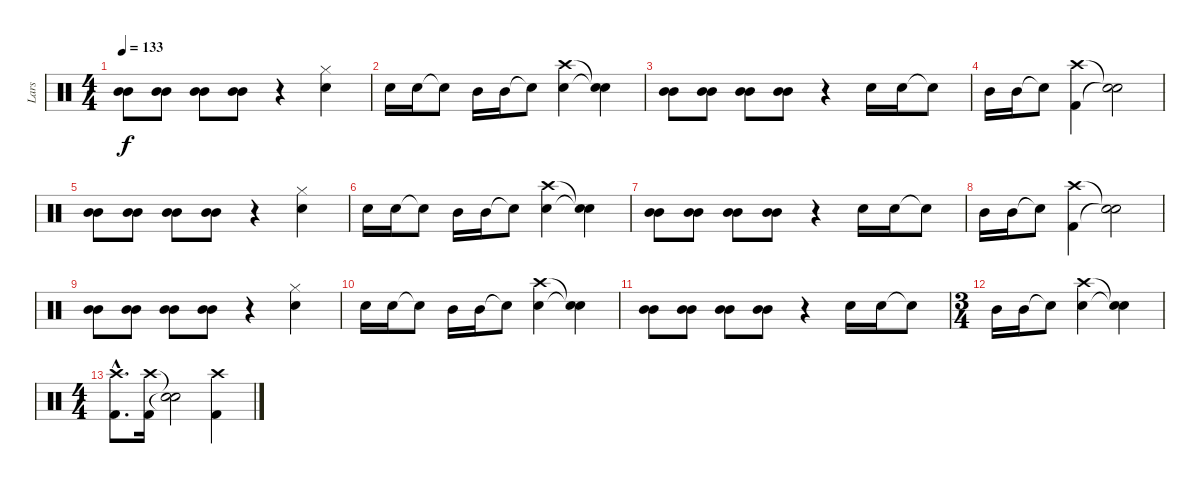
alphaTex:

\track ("Lars" "Lars") {instrument percussion}
\staff {score}
\articulation defaults
\ts (4 4)
\tempo 133
\clef neutral
\ks c
("Mid Tom (hit)" "Mid Tom (hit)").8{dy f} ("Mid Tom (hit)" "Mid Tom (hit)").8 ("Mid Tom (hit)" "Mid Tom (hit)").8 ("Mid Tom (hit)" "Mid Tom (hit)").8 r.4 ("Hi-Hat (closed)" "Electric Snare (hit)").4 |
"Electric Snare (hit)".16 "Electric Snare (hit)".16 "Snare (hit)"{t}.8 "Mid Tom (hit)".16 "Mid Tom (hit)".16 "Snare (hit)"{t}.8 ("Crash high (hit)" "Electric Snare (hit)").4 ("Snare (hit)"{t} "Snare (hit)"{t}).4 |
("Mid Tom (hit)" "Mid Tom (hit)").8 ("Mid Tom (hit)" "Mid Tom (hit)").8 ("Mid Tom (hit)" "Mid Tom (hit)").8 ("Mid Tom (hit)" "Mid Tom (hit)").8 r.4 "Electric Snare (hit)".16 "Electric Snare (hit)".16 "Snare (hit)"{t}.8 |
"Mid Tom (hit)".16 "Mid Tom (hit)".16 "Snare (hit)"{t}.8 ("Crash high (hit)" "Kick (hit) 2").4 ("Snare (hit)"{t} "Snare (hit)"{t}).2 |
("Mid Tom (hit)" "Mid Tom (hit)").8 ("Mid Tom (hit)" "Mid Tom (hit)").8 ("Mid Tom (hit)" "Mid Tom (hit)").8 ("Mid Tom (hit)" "Mid Tom (hit)").8 r.4 ("Hi-Hat (closed)" "Electric Snare (hit)").4 |
"Electric Snare (hit)".16 "Electric Snare (hit)".16 "Snare (hit)"{t}.8 "Mid Tom (hit)".16 "Mid Tom (hit)".16 "Snare (hit)"{t}.8 ("Crash high (hit)" "Snare (hit) 2").4 ("Snare (hit)"{t} "Snare (hit)"{t}).4 |
("Mid Tom (hit)" "Mid Tom (hit)").8 ("Mid Tom (hit)" "Mid Tom (hit)").8 ("Mid Tom (hit)" "Mid Tom (hit)").8 ("Mid Tom (hit)" "Mid Tom (hit)").8 r.4 "Electric Snare (hit)".16 "Electric Snare (hit)".16 "Snare (hit)"{t}.8 |
"Mid Tom (hit)".16 "Mid Tom (hit)".16 "Snare (hit)"{t}.8 ("Crash high (hit)" "Kick (hit) 2").4 ("Snare (hit)"{t} "Snare (hit)"{t}).2 |
("Mid Tom (hit)" "Mid Tom (hit)").8 ("Mid Tom (hit)" "Mid Tom (hit)").8 ("Mid Tom (hit)" "Mid Tom (hit)").8 ("Mid Tom (hit)" "Mid Tom (hit)").8 r.4 ("Hi-Hat (closed)" "Electric Snare (hit)").4 |
"Electric Snare (hit)".16 "Electric Snare (hit)".16 "Snare (hit)"{t}.8 "Mid Tom (hit)".16 "Mid Tom (hit)".16 "Snare (hit)"{t}.8 ("Crash high (hit)" "Electric Snare (hit)").4 ("Snare (hit)"{t} "Snare (hit)"{t}).4 |
("Mid Tom (hit)" "Mid Tom (hit)").8 ("Mid Tom (hit)" "Mid Tom (hit)").8 ("Mid Tom (hit)" "Mid Tom (hit)").8 ("Mid Tom (hit)" "Mid Tom (hit)").8 r.4 "Electric Snare (hit)".16 "Electric Snare (hit)".16 "Snare (hit)"{t}.8 |
\ts (3 4)
"Mid Tom (hit)".16 "Mid Tom (hit)".16 "Snare (hit)"{t}.8 ("Crash high (hit)" "Electric Snare (hit)").4 ("Snare (hit)"{t} "Snare (hit)"{t}).4 |
\ts (4 4)
("Crash high (hit)"{hac} "Kick (hit) 2"{hac}).8{d} ("Crash high (hit)" "Kick (hit) 2").16 ("Snare (hit)"{t} "Snare (hit)"{t}).2 ("Crash high (hit)" "Kick (hit) 2").4
